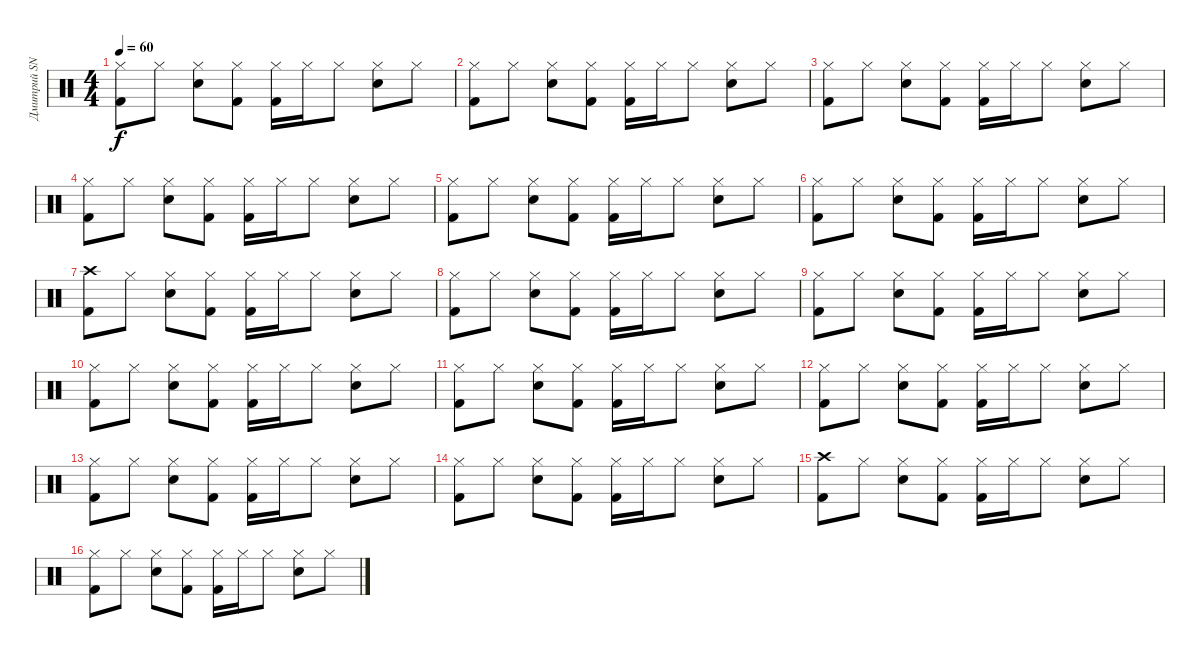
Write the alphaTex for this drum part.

\track ("Дмитрий SNAKE Хакимов" "Дмитрий SN") {instrument percussion}
\staff {score}
\articulation defaults
\ts (4 4)
\tempo 60
\clef neutral
\ks c
("Hi-Hat (closed)" "Kick (hit) 2").8{dy f} "Hi-Hat (closed)".8 ("Hi-Hat (closed)" "Electric Snare (hit)").8 ("Hi-Hat (closed)" "Kick (hit) 2").8 ("Hi-Hat (closed)" "Kick (hit) 2").16 "Hi-Hat (closed)".16 "Hi-Hat (closed)".8 ("Hi-Hat (closed)" "Electric Snare (hit)").8 "Hi-Hat (closed)".8 |
("Hi-Hat (closed)" "Kick (hit) 2").8 "Hi-Hat (closed)".8 ("Hi-Hat (closed)" "Electric Snare (hit)").8 ("Hi-Hat (closed)" "Kick (hit) 2").8 ("Hi-Hat (closed)" "Kick (hit) 2").16 "Hi-Hat (closed)".16 "Hi-Hat (closed)".8 ("Hi-Hat (closed)" "Electric Snare (hit)").8 "Hi-Hat (closed)".8 |
("Hi-Hat (closed)" "Kick (hit) 2").8 "Hi-Hat (closed)".8 ("Hi-Hat (closed)" "Electric Snare (hit)").8 ("Hi-Hat (closed)" "Kick (hit) 2").8 ("Hi-Hat (closed)" "Kick (hit) 2").16 "Hi-Hat (closed)".16 "Hi-Hat (closed)".8 ("Hi-Hat (closed)" "Electric Snare (hit)").8 "Hi-Hat (closed)".8 |
("Hi-Hat (closed)" "Kick (hit) 2").8 "Hi-Hat (closed)".8 ("Hi-Hat (closed)" "Electric Snare (hit)").8 ("Hi-Hat (closed)" "Kick (hit) 2").8 ("Hi-Hat (closed)" "Kick (hit) 2").16 "Hi-Hat (closed)".16 "Hi-Hat (closed)".8 ("Hi-Hat (closed)" "Electric Snare (hit)").8 "Hi-Hat (closed)".8 |
("Hi-Hat (closed)" "Kick (hit) 2").8 "Hi-Hat (closed)".8 ("Hi-Hat (closed)" "Electric Snare (hit)").8 ("Hi-Hat (closed)" "Kick (hit) 2").8 ("Hi-Hat (closed)" "Kick (hit) 2").16 "Hi-Hat (closed)".16 "Hi-Hat (closed)".8 ("Hi-Hat (closed)" "Electric Snare (hit)").8 "Hi-Hat (closed)".8 |
("Hi-Hat (closed)" "Kick (hit) 2").8 "Hi-Hat (closed)".8 ("Hi-Hat (closed)" "Electric Snare (hit)").8 ("Hi-Hat (closed)" "Kick (hit) 2").8 ("Hi-Hat (closed)" "Kick (hit) 2").16 "Hi-Hat (closed)".16 "Hi-Hat (closed)".8 ("Hi-Hat (closed)" "Electric Snare (hit)").8 "Hi-Hat (closed)".8 |
("Crash high (hit)" "Kick (hit) 2").8 "Hi-Hat (closed)".8 ("Hi-Hat (closed)" "Electric Snare (hit)").8 ("Hi-Hat (closed)" "Kick (hit) 2").8 ("Hi-Hat (closed)" "Kick (hit) 2").16 "Hi-Hat (closed)".16 "Hi-Hat (closed)".8 ("Hi-Hat (closed)" "Electric Snare (hit)").8 "Hi-Hat (closed)".8 |
("Hi-Hat (closed)" "Kick (hit) 2").8 "Hi-Hat (closed)".8 ("Hi-Hat (closed)" "Electric Snare (hit)").8 ("Hi-Hat (closed)" "Kick (hit) 2").8 ("Hi-Hat (closed)" "Kick (hit) 2").16 "Hi-Hat (closed)".16 "Hi-Hat (closed)".8 ("Hi-Hat (closed)" "Electric Snare (hit)").8 "Hi-Hat (closed)".8 |
("Hi-Hat (closed)" "Kick (hit) 2").8 "Hi-Hat (closed)".8 ("Hi-Hat (closed)" "Electric Snare (hit)").8 ("Hi-Hat (closed)" "Kick (hit) 2").8 ("Hi-Hat (closed)" "Kick (hit) 2").16 "Hi-Hat (closed)".16 "Hi-Hat (closed)".8 ("Hi-Hat (closed)" "Electric Snare (hit)").8 "Hi-Hat (closed)".8 |
("Hi-Hat (closed)" "Kick (hit) 2").8 "Hi-Hat (closed)".8 ("Hi-Hat (closed)" "Electric Snare (hit)").8 ("Hi-Hat (closed)" "Kick (hit) 2").8 ("Hi-Hat (closed)" "Kick (hit) 2").16 "Hi-Hat (closed)".16 "Hi-Hat (closed)".8 ("Hi-Hat (closed)" "Electric Snare (hit)").8 "Hi-Hat (closed)".8 |
("Hi-Hat (closed)" "Kick (hit) 2").8 "Hi-Hat (closed)".8 ("Hi-Hat (closed)" "Electric Snare (hit)").8 ("Hi-Hat (closed)" "Kick (hit) 2").8 ("Hi-Hat (closed)" "Kick (hit) 2").16 "Hi-Hat (closed)".16 "Hi-Hat (closed)".8 ("Hi-Hat (closed)" "Electric Snare (hit)").8 "Hi-Hat (closed)".8 |
("Hi-Hat (closed)" "Kick (hit) 2").8 "Hi-Hat (closed)".8 ("Hi-Hat (closed)" "Electric Snare (hit)").8 ("Hi-Hat (closed)" "Kick (hit) 2").8 ("Hi-Hat (closed)" "Kick (hit) 2").16 "Hi-Hat (closed)".16 "Hi-Hat (closed)".8 ("Hi-Hat (closed)" "Electric Snare (hit)").8 "Hi-Hat (closed)".8 |
("Hi-Hat (closed)" "Kick (hit) 2").8 "Hi-Hat (closed)".8 ("Hi-Hat (closed)" "Electric Snare (hit)").8 ("Hi-Hat (closed)" "Kick (hit) 2").8 ("Hi-Hat (closed)" "Kick (hit) 2").16 "Hi-Hat (closed)".16 "Hi-Hat (closed)".8 ("Hi-Hat (closed)" "Electric Snare (hit)").8 "Hi-Hat (closed)".8 |
("Hi-Hat (closed)" "Kick (hit) 2").8 "Hi-Hat (closed)".8 ("Hi-Hat (closed)" "Electric Snare (hit)").8 ("Hi-Hat (closed)" "Kick (hit) 2").8 ("Hi-Hat (closed)" "Kick (hit) 2").16 "Hi-Hat (closed)".16 "Hi-Hat (closed)".8 ("Hi-Hat (closed)" "Electric Snare (hit)").8 "Hi-Hat (closed)".8 |
("Crash high (hit)" "Kick (hit) 2").8 "Hi-Hat (closed)".8 ("Hi-Hat (closed)" "Electric Snare (hit)").8 ("Hi-Hat (closed)" "Kick (hit) 2").8 ("Hi-Hat (closed)" "Kick (hit) 2").16 "Hi-Hat (closed)".16 "Hi-Hat (closed)".8 ("Hi-Hat (closed)" "Electric Snare (hit)").8 "Hi-Hat (closed)".8 |
("Hi-Hat (closed)" "Kick (hit) 2").8 "Hi-Hat (closed)".8 ("Hi-Hat (closed)" "Electric Snare (hit)").8 ("Hi-Hat (closed)" "Kick (hit) 2").8 ("Hi-Hat (closed)" "Kick (hit) 2").16 "Hi-Hat (closed)".16 "Hi-Hat (closed)".8 ("Hi-Hat (closed)" "Electric Snare (hit)").8 "Hi-Hat (closed)".8
